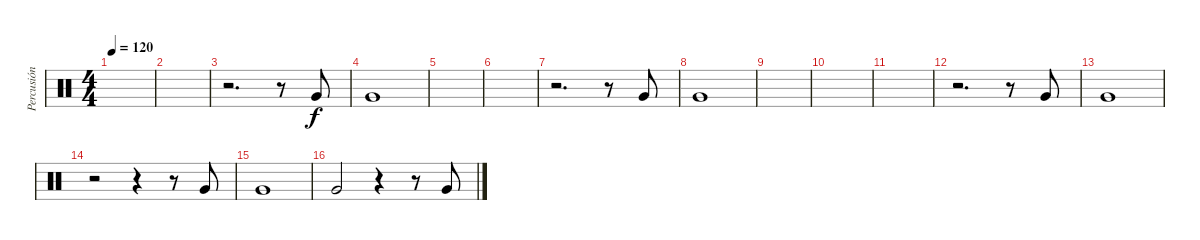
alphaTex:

\track ("Percusión" "Percusión") {instrument percussion}
\staff {score}
\articulation defaults
\ts (4 4)
\tempo 120
\clef neutral
\ks c
|
|
r.2{d} r.8 "Very Low Tom (hit)".8 |
"Very Low Tom (hit)".1 |
|
|
r.2{d} r.8 "Very Low Tom (hit)".8 |
"Very Low Tom (hit)".1 |
|
|
|
r.2{d} r.8 "Very Low Tom (hit)".8 |
"Very Low Tom (hit)".1 |
r.2 r.4 r.8 "Very Low Tom (hit)".8 |
"Very Low Tom (hit)".1 |
"Very Low Tom (hit)".2 r.4 r.8 "Very Low Tom (hit)".8
